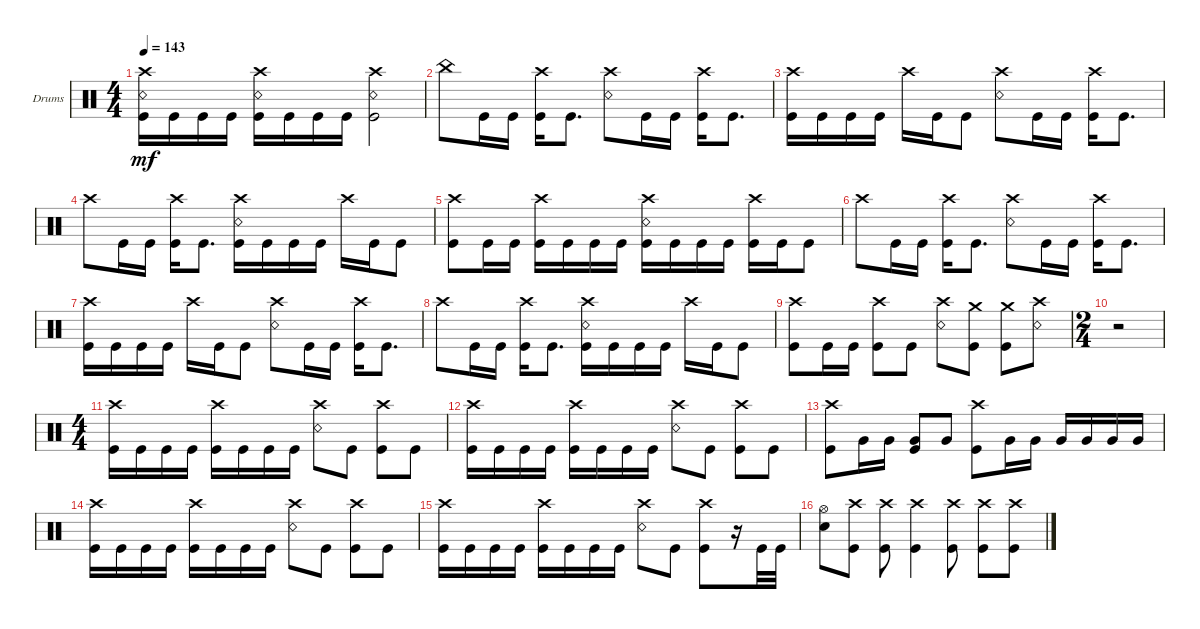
\defaultSystemsLayout 4
\bracketExtendMode groupsimilarinstruments
\firstSystemTrackNameOrientation horizontal
\otherSystemsTrackNameOrientation horizontal
\track ("Drums" "Drums") {instrument percussion}
\staff {score}
\articulation defaults
\ts (4 4)
\tempo 143
\clef neutral
\ks c
("Kick (hit)" "Snare (rim shot)" "Crash high (hit)").16{dy mf} "Kick (hit)".16 "Kick (hit)".16 "Kick (hit)".16 ("Kick (hit)" "Snare (rim shot)" "Crash high (hit)").16 "Kick (hit)".16 "Kick (hit)".16 "Kick (hit)".16 ("Kick (hit)" "Snare (rim shot)" "Crash high (hit)").2 |
"China (hit)".8 "Kick (hit)".16 "Kick (hit)".16 ("Kick (hit)" "Crash high (hit)").16 "Kick (hit)".8{d} ("Crash high (hit)" "Snare (rim shot)").8 "Kick (hit)".16 "Kick (hit)".16 ("Kick (hit)" "Crash high (hit)").16 "Kick (hit)".8{d} |
("Kick (hit)" "Crash high (hit)").16 "Kick (hit)".16 "Kick (hit)".16 "Kick (hit)".16 "Crash high (hit)".16 "Kick (hit)".16 "Kick (hit)".8 ("Snare (rim shot)" "Crash high (hit)").8 "Kick (hit)".16 "Kick (hit)".16 ("Kick (hit)" "Crash high (hit)").16 "Kick (hit)".8{d} |
"Crash high (hit)".8 "Kick (hit)".16 "Kick (hit)".16 ("Kick (hit)" "Crash high (hit)").16 "Kick (hit)".8{d} ("Snare (rim shot)" "Crash high (hit)" "Kick (hit)").16 "Kick (hit)".16 "Kick (hit)".16 "Kick (hit)".16 "Crash high (hit)".16 "Kick (hit)".16 "Kick (hit)".8 |
("Kick (hit)" "Crash high (hit)").8 "Kick (hit)".16 "Kick (hit)".16 ("Kick (hit)" "Crash high (hit)").16 "Kick (hit)".16 "Kick (hit)".16 "Kick (hit)".16 ("Kick (hit)" "Crash high (hit)" "Snare (rim shot)").16 "Kick (hit)".16 "Kick (hit)".16 "Kick (hit)".16 ("Kick (hit)" "Crash high (hit)").16 "Kick (hit)".16 "Kick (hit)".8 |
"Crash high (hit)".8 "Kick (hit)".16 "Kick (hit)".16 ("Kick (hit)" "Crash high (hit)").16 "Kick (hit)".8{d} ("Crash high (hit)" "Snare (rim shot)").8 "Kick (hit)".16 "Kick (hit)".16 ("Kick (hit)" "Crash high (hit)").16 "Kick (hit)".8{d} |
("Kick (hit)" "Crash high (hit)").16 "Kick (hit)".16 "Kick (hit)".16 "Kick (hit)".16 "Crash high (hit)".16 "Kick (hit)".16 "Kick (hit)".8 ("Snare (rim shot)" "Crash high (hit)").8 "Kick (hit)".16 "Kick (hit)".16 ("Kick (hit)" "Crash high (hit)").16 "Kick (hit)".8{d} |
"Crash high (hit)".8 "Kick (hit)".16 "Kick (hit)".16 ("Kick (hit)" "Crash high (hit)").16 "Kick (hit)".8{d} ("Snare (rim shot)" "Crash high (hit)" "Kick (hit)").16 "Kick (hit)".16 "Kick (hit)".16 "Kick (hit)".16 "Crash high (hit)".16 "Kick (hit)".16 "Kick (hit)".8 |
("Kick (hit)" "Crash high (hit)").8 "Kick (hit)".16 "Kick (hit)".16 ("Kick (hit)" "Crash high (hit)").8 "Kick (hit)".8 ("Snare (rim shot)" "Crash high (hit)").8 ("Kick (hit)" "Crash medium (hit)").8 ("Kick (hit)" "Crash medium (hit)").8 ("Snare (rim shot)" "Crash high (hit)").8 |
\ts (2 4)
r.2 |
\ts (4 4)
("Crash high (hit)" "Kick (hit)").16 "Kick (hit)".16 "Kick (hit)".16 "Kick (hit)".16 ("Kick (hit)" "Crash high (hit)").16 "Kick (hit)".16 "Kick (hit)".16 "Kick (hit)".16 ("Crash high (hit)" "Snare (rim shot)").8 "Kick (hit)".8 ("Kick (hit)" "Crash high (hit)").8 "Kick (hit)".8 |
("Crash high (hit)" "Kick (hit)").16 "Kick (hit)".16 "Kick (hit)".16 "Kick (hit)".16 ("Kick (hit)" "Crash high (hit)").16 "Kick (hit)".16 "Kick (hit)".16 "Kick (hit)".16 ("Crash high (hit)" "Snare (rim shot)").8 "Kick (hit)".8 ("Kick (hit)" "Crash high (hit)").8 "Kick (hit)".8 |
("Crash high (hit)" "Kick (hit)").8 "Very Low Tom (hit)".16 "Very Low Tom (hit)".16 ("Very Low Tom (hit)" "Kick (hit)").8 "Very Low Tom (hit)".8 ("Kick (hit)" "Crash high (hit)").8 "Very Low Tom (hit)".16 "Very Low Tom (hit)".16 "Very Low Tom (hit)".16 "Very Low Tom (hit)".16 "Very Low Tom (hit)".16 "Very Low Tom (hit)".16 |
("Crash high (hit)" "Kick (hit)").16 "Kick (hit)".16 "Kick (hit)".16 "Kick (hit)".16 ("Kick (hit)" "Crash high (hit)").16 "Kick (hit)".16 "Kick (hit)".16 "Kick (hit)".16 ("Crash high (hit)" "Snare (rim shot)").8 "Kick (hit)".8 ("Kick (hit)" "Crash high (hit)").8 "Kick (hit)".8 |
("Crash high (hit)" "Kick (hit)").16 "Kick (hit)".16 "Kick (hit)".16 "Kick (hit)".16 ("Kick (hit)" "Crash high (hit)").16 "Kick (hit)".16 "Kick (hit)".16 "Kick (hit)".16 ("Crash high (hit)" "Snare (rim shot)").8 "Kick (hit)".8 ("Kick (hit)" "Crash high (hit)").8 r.16 "Kick (hit)".32 "Kick (hit)".32 |
("Snare (hit) 2" "Hi-Hat (open)").8 ("Crash high (hit)" "Kick (hit)").8 ("Crash high (hit)" "Kick (hit)").8 ("Crash high (hit)" "Kick (hit)").4 ("Crash high (hit)" "Kick (hit)").8 ("Crash high (hit)" "Kick (hit)").8 ("Crash high (hit)" "Kick (hit)").8
